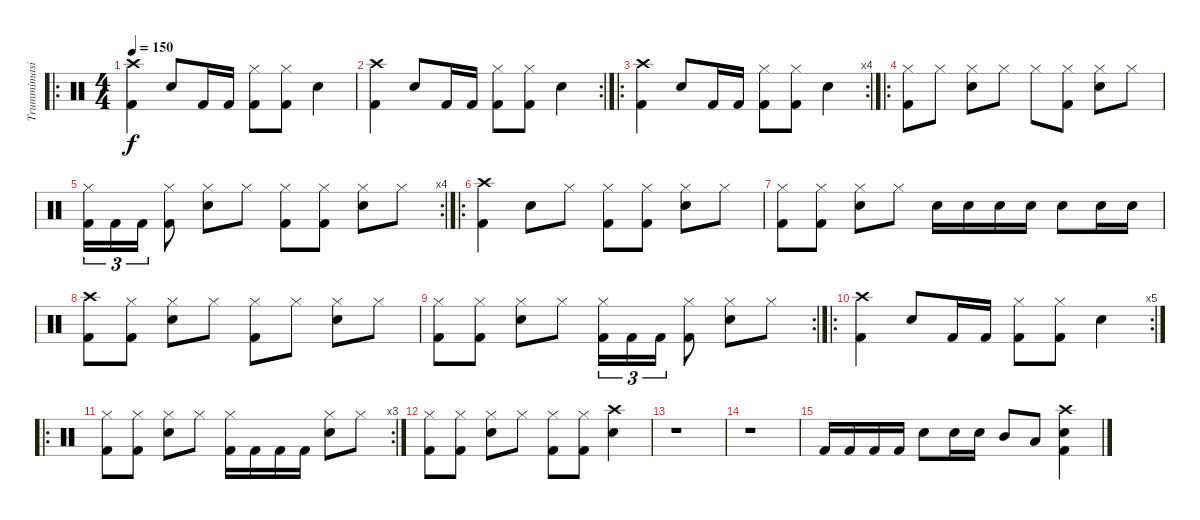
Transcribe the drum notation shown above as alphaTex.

\track ("Trummimasin" "Trummimasi") {instrument percussion}
\staff {score}
\articulation defaults
\ro
\ts (4 4)
\tempo 150
\clef neutral
\ks c
("Crash high (hit)" "Kick (hit) 2").4{dy f volume 16} "Snare (hit) 2".8 "Kick (hit) 2".16 "Kick (hit) 2".16 ("Hi-Hat (closed)" "Kick (hit) 2").8 ("Hi-Hat (closed)" "Kick (hit) 2").8 "Snare (hit) 2".4 |
\rc 2
("Crash high (hit)" "Kick (hit) 2").4 "Snare (hit) 2".8 "Kick (hit) 2".16 "Kick (hit) 2".16 ("Hi-Hat (closed)" "Kick (hit) 2").8 ("Hi-Hat (closed)" "Kick (hit) 2").8 "Snare (hit) 2".4 |
\ro
\rc 4
("Crash high (hit)" "Kick (hit) 2").4{volume 16} "Snare (hit) 2".8 "Kick (hit) 2".16 "Kick (hit) 2".16 ("Hi-Hat (closed)" "Kick (hit) 2").8 ("Hi-Hat (closed)" "Kick (hit) 2").8 "Snare (hit) 2".4 |
\ro
("Hi-Hat (closed)" "Kick (hit) 2").8 "Hi-Hat (closed)".8 ("Hi-Hat (closed)" "Snare (hit) 2").8 "Hi-Hat (closed)".8 "Hi-Hat (closed)".8 ("Hi-Hat (closed)" "Kick (hit) 2").8 ("Hi-Hat (closed)" "Snare (hit) 2").8 "Hi-Hat (closed)".8 |
\rc 4
("Hi-Hat (closed)" "Kick (hit) 2").16{tu (3 2)} "Kick (hit) 2".16{tu (3 2)} "Kick (hit) 2".16{tu (3 2)} ("Hi-Hat (closed)" "Kick (hit) 2").8 ("Hi-Hat (closed)" "Snare (hit) 2").8 "Hi-Hat (closed)".8 ("Hi-Hat (closed)" "Kick (hit) 2").8 ("Hi-Hat (closed)" "Kick (hit) 2").8 ("Hi-Hat (closed)" "Snare (hit) 2").8 "Hi-Hat (closed)".8 |
\ro
("Crash high (hit)" "Kick (hit) 2").4 "Snare (hit) 2".8 "Hi-Hat (closed)".8 ("Hi-Hat (closed)" "Kick (hit) 2").8 ("Hi-Hat (closed)" "Kick (hit) 2").8 ("Hi-Hat (closed)" "Snare (hit) 2").8 "Hi-Hat (closed)".8 |
("Hi-Hat (closed)" "Kick (hit) 2").8 ("Hi-Hat (closed)" "Kick (hit) 2").8 ("Hi-Hat (closed)" "Snare (hit) 2").8 "Hi-Hat (closed)".8 "Snare (hit) 2".16 "Snare (hit) 2".16 "Snare (hit) 2".16 "Snare (hit) 2".16 "Snare (hit) 2".8 "Snare (hit) 2".16 "Snare (hit) 2".16 |
("Crash high (hit)" "Kick (hit) 2").8 ("Hi-Hat (closed)" "Kick (hit) 2").8 ("Hi-Hat (closed)" "Snare (hit) 2").8 "Hi-Hat (closed)".8 ("Hi-Hat (closed)" "Kick (hit) 2").8 "Hi-Hat (closed)".8 ("Hi-Hat (closed)" "Snare (hit) 2").8 "Hi-Hat (closed)".8 |
\rc 2
("Hi-Hat (closed)" "Kick (hit) 2").8 ("Hi-Hat (closed)" "Kick (hit) 2").8 ("Hi-Hat (closed)" "Snare (hit) 2").8 "Hi-Hat (closed)".8 ("Hi-Hat (closed)" "Kick (hit) 2").16{tu (3 2)} "Kick (hit) 2".16{tu (3 2)} "Kick (hit) 2".16{tu (3 2)} ("Hi-Hat (closed)" "Kick (hit) 2").8 ("Hi-Hat (closed)" "Snare (hit) 2").8 "Hi-Hat (closed)".8 |
\ro
\rc 5
("Crash high (hit)" "Kick (hit) 2").4 "Snare (hit) 2".8 "Kick (hit) 2".16 "Kick (hit) 2".16 ("Hi-Hat (closed)" "Kick (hit) 2").8 ("Hi-Hat (closed)" "Kick (hit) 2").8 "Snare (hit) 2".4 |
\ro
\rc 3
("Hi-Hat (closed)" "Kick (hit) 2").8 ("Hi-Hat (closed)" "Kick (hit) 2").8 ("Hi-Hat (closed)" "Snare (hit) 2").8 "Hi-Hat (closed)".8 ("Hi-Hat (closed)" "Kick (hit) 2").16 "Kick (hit) 2".16 "Kick (hit) 2".16 "Kick (hit) 2".16 ("Hi-Hat (closed)" "Snare (hit) 2").8 "Hi-Hat (closed)".8 |
("Hi-Hat (closed)" "Kick (hit) 2").8 ("Hi-Hat (closed)" "Kick (hit) 2").8 ("Hi-Hat (closed)" "Snare (hit) 2").8 "Hi-Hat (closed)".8 ("Hi-Hat (closed)" "Kick (hit) 2").8 ("Hi-Hat (closed)" "Kick (hit) 2").8 ("Crash high (hit)" "Snare (hit) 2").4 |
r.1 |
r.1 |
"Kick (hit) 2".16 "Kick (hit) 2".16 "Kick (hit) 2".16 "Kick (hit) 2".16 "Snare (hit) 2".8 "Snare (hit) 2".16 "Snare (hit) 2".16 "Mid Tom (hit)".8 "Low Floor Tom (hit)".8 ("Crash high (hit)" "Snare (hit) 2" "Kick (hit) 2").4
